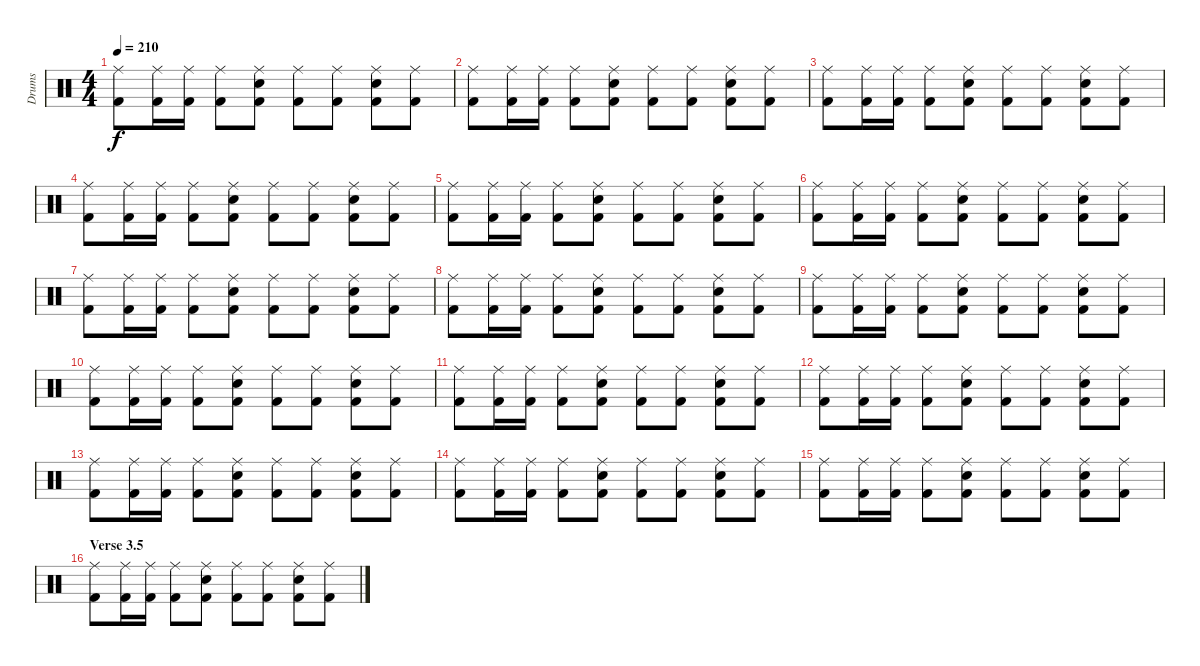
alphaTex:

\track ("Drums" "Drums") {instrument percussion}
\staff {score}
\articulation defaults
\ts (4 4)
\tempo 210
\clef neutral
\ks c
("Ride (middle)" "Kick (hit) 2").8{dy f} ("Ride (middle)" "Kick (hit) 2").16 ("Ride (middle)" "Kick (hit) 2").16 ("Ride (middle)" "Kick (hit) 2").8 ("Ride (middle)" "Snare (hit) 2" "Kick (hit) 2").8 ("Ride (middle)" "Kick (hit) 2").8 ("Ride (middle)" "Kick (hit) 2").8 ("Ride (middle)" "Snare (hit) 2" "Kick (hit) 2").8 ("Ride (middle)" "Kick (hit) 2").8 |
("Ride (middle)" "Kick (hit) 2").8 ("Ride (middle)" "Kick (hit) 2").16 ("Ride (middle)" "Kick (hit) 2").16 ("Ride (middle)" "Kick (hit) 2").8 ("Ride (middle)" "Snare (hit) 2" "Kick (hit) 2").8 ("Ride (middle)" "Kick (hit) 2").8 ("Ride (middle)" "Kick (hit) 2").8 ("Ride (middle)" "Snare (hit) 2" "Kick (hit) 2").8 ("Ride (middle)" "Kick (hit) 2").8 |
("Ride (middle)" "Kick (hit) 2").8 ("Ride (middle)" "Kick (hit) 2").16 ("Ride (middle)" "Kick (hit) 2").16 ("Ride (middle)" "Kick (hit) 2").8 ("Ride (middle)" "Snare (hit) 2" "Kick (hit) 2").8 ("Ride (middle)" "Kick (hit) 2").8 ("Ride (middle)" "Kick (hit) 2").8 ("Ride (middle)" "Snare (hit) 2" "Kick (hit) 2").8 ("Ride (middle)" "Kick (hit) 2").8 |
("Ride (middle)" "Kick (hit) 2").8 ("Ride (middle)" "Kick (hit) 2").16 ("Ride (middle)" "Kick (hit) 2").16 ("Ride (middle)" "Kick (hit) 2").8 ("Ride (middle)" "Snare (hit) 2" "Kick (hit) 2").8 ("Ride (middle)" "Kick (hit) 2").8 ("Ride (middle)" "Kick (hit) 2").8 ("Ride (middle)" "Snare (hit) 2" "Kick (hit) 2").8 ("Ride (middle)" "Kick (hit) 2").8 |
("Ride (middle)" "Kick (hit) 2").8 ("Ride (middle)" "Kick (hit) 2").16 ("Ride (middle)" "Kick (hit) 2").16 ("Ride (middle)" "Kick (hit) 2").8 ("Ride (middle)" "Snare (hit) 2" "Kick (hit) 2").8 ("Ride (middle)" "Kick (hit) 2").8 ("Ride (middle)" "Kick (hit) 2").8 ("Ride (middle)" "Snare (hit) 2" "Kick (hit) 2").8 ("Ride (middle)" "Kick (hit) 2").8 |
("Ride (middle)" "Kick (hit) 2").8 ("Ride (middle)" "Kick (hit) 2").16 ("Ride (middle)" "Kick (hit) 2").16 ("Ride (middle)" "Kick (hit) 2").8 ("Ride (middle)" "Snare (hit) 2" "Kick (hit) 2").8 ("Ride (middle)" "Kick (hit) 2").8 ("Ride (middle)" "Kick (hit) 2").8 ("Ride (middle)" "Snare (hit) 2" "Kick (hit) 2").8 ("Ride (middle)" "Kick (hit) 2").8 |
("Ride (middle)" "Kick (hit) 2").8 ("Ride (middle)" "Kick (hit) 2").16 ("Ride (middle)" "Kick (hit) 2").16 ("Ride (middle)" "Kick (hit) 2").8 ("Ride (middle)" "Snare (hit) 2" "Kick (hit) 2").8 ("Ride (middle)" "Kick (hit) 2").8 ("Ride (middle)" "Kick (hit) 2").8 ("Ride (middle)" "Snare (hit) 2" "Kick (hit) 2").8 ("Ride (middle)" "Kick (hit) 2").8 |
("Ride (middle)" "Kick (hit) 2").8 ("Ride (middle)" "Kick (hit) 2").16 ("Ride (middle)" "Kick (hit) 2").16 ("Ride (middle)" "Kick (hit) 2").8 ("Ride (middle)" "Snare (hit) 2" "Kick (hit) 2").8 ("Ride (middle)" "Kick (hit) 2").8 ("Ride (middle)" "Kick (hit) 2").8 ("Ride (middle)" "Snare (hit) 2" "Kick (hit) 2").8 ("Ride (middle)" "Kick (hit) 2").8 |
("Ride (middle)" "Kick (hit) 2").8 ("Ride (middle)" "Kick (hit) 2").16 ("Ride (middle)" "Kick (hit) 2").16 ("Ride (middle)" "Kick (hit) 2").8 ("Ride (middle)" "Snare (hit) 2" "Kick (hit) 2").8 ("Ride (middle)" "Kick (hit) 2").8 ("Ride (middle)" "Kick (hit) 2").8 ("Ride (middle)" "Snare (hit) 2" "Kick (hit) 2").8 ("Ride (middle)" "Kick (hit) 2").8 |
("Ride (middle)" "Kick (hit) 2").8 ("Ride (middle)" "Kick (hit) 2").16 ("Ride (middle)" "Kick (hit) 2").16 ("Ride (middle)" "Kick (hit) 2").8 ("Ride (middle)" "Snare (hit) 2" "Kick (hit) 2").8 ("Ride (middle)" "Kick (hit) 2").8 ("Ride (middle)" "Kick (hit) 2").8 ("Ride (middle)" "Snare (hit) 2" "Kick (hit) 2").8 ("Ride (middle)" "Kick (hit) 2").8 |
("Ride (middle)" "Kick (hit) 2").8 ("Ride (middle)" "Kick (hit) 2").16 ("Ride (middle)" "Kick (hit) 2").16 ("Ride (middle)" "Kick (hit) 2").8 ("Ride (middle)" "Snare (hit) 2" "Kick (hit) 2").8 ("Ride (middle)" "Kick (hit) 2").8 ("Ride (middle)" "Kick (hit) 2").8 ("Ride (middle)" "Snare (hit) 2" "Kick (hit) 2").8 ("Ride (middle)" "Kick (hit) 2").8 |
("Ride (middle)" "Kick (hit) 2").8 ("Ride (middle)" "Kick (hit) 2").16 ("Ride (middle)" "Kick (hit) 2").16 ("Ride (middle)" "Kick (hit) 2").8 ("Ride (middle)" "Snare (hit) 2" "Kick (hit) 2").8 ("Ride (middle)" "Kick (hit) 2").8 ("Ride (middle)" "Kick (hit) 2").8 ("Ride (middle)" "Snare (hit) 2" "Kick (hit) 2").8 ("Ride (middle)" "Kick (hit) 2").8 |
("Ride (middle)" "Kick (hit) 2").8 ("Ride (middle)" "Kick (hit) 2").16 ("Ride (middle)" "Kick (hit) 2").16 ("Ride (middle)" "Kick (hit) 2").8 ("Ride (middle)" "Snare (hit) 2" "Kick (hit) 2").8 ("Ride (middle)" "Kick (hit) 2").8 ("Ride (middle)" "Kick (hit) 2").8 ("Ride (middle)" "Snare (hit) 2" "Kick (hit) 2").8 ("Ride (middle)" "Kick (hit) 2").8 |
("Ride (middle)" "Kick (hit) 2").8 ("Ride (middle)" "Kick (hit) 2").16 ("Ride (middle)" "Kick (hit) 2").16 ("Ride (middle)" "Kick (hit) 2").8 ("Ride (middle)" "Snare (hit) 2" "Kick (hit) 2").8 ("Ride (middle)" "Kick (hit) 2").8 ("Ride (middle)" "Kick (hit) 2").8 ("Ride (middle)" "Snare (hit) 2" "Kick (hit) 2").8 ("Ride (middle)" "Kick (hit) 2").8 |
("Ride (middle)" "Kick (hit) 2").8 ("Ride (middle)" "Kick (hit) 2").16 ("Ride (middle)" "Kick (hit) 2").16 ("Ride (middle)" "Kick (hit) 2").8 ("Ride (middle)" "Snare (hit) 2" "Kick (hit) 2").8 ("Ride (middle)" "Kick (hit) 2").8 ("Ride (middle)" "Kick (hit) 2").8 ("Ride (middle)" "Snare (hit) 2" "Kick (hit) 2").8 ("Ride (middle)" "Kick (hit) 2").8 |
\section ("" "Verse 3.5")
("Ride (middle)" "Kick (hit) 2").8 ("Ride (middle)" "Kick (hit) 2").16 ("Ride (middle)" "Kick (hit) 2").16 ("Ride (middle)" "Kick (hit) 2").8 ("Ride (middle)" "Snare (hit) 2" "Kick (hit) 2").8 ("Ride (middle)" "Kick (hit) 2").8 ("Ride (middle)" "Kick (hit) 2").8 ("Ride (middle)" "Snare (hit) 2" "Kick (hit) 2").8 ("Ride (middle)" "Kick (hit) 2").8
